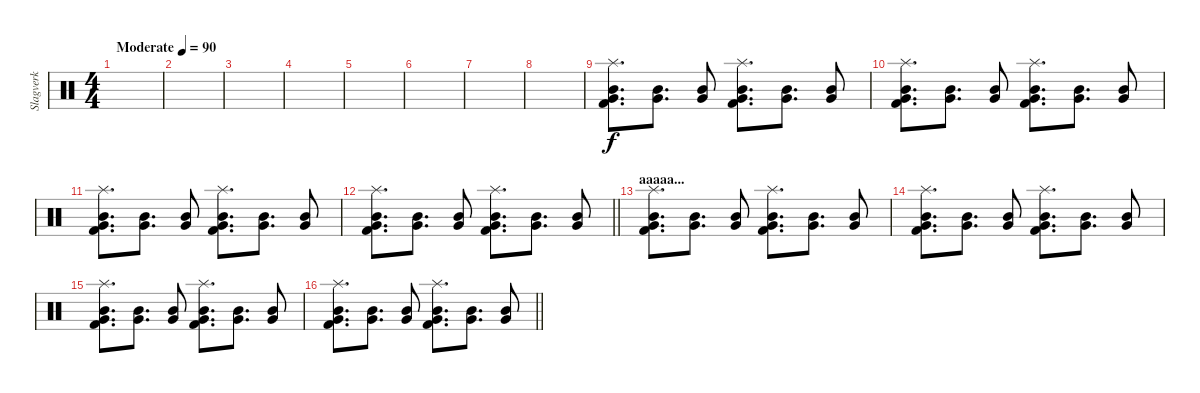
\track ("Slagverk" "Slagverk") {instrument percussion}
\staff {score}
\articulation defaults
\ts (4 4)
\tempo (90 "Moderate")
\clef neutral
\ks c
|
|
|
|
|
|
|
|
("Splash (hit)" "Very Low Tom (hit)" "Mid Tom (hit)" "Kick (hit) 2").8{d volume 6} ("Very Low Tom (hit)" "Mid Tom (hit)").8{d} ("Very Low Tom (hit)" "Mid Tom (hit)").8 ("Splash (hit)" "Very Low Tom (hit)" "Mid Tom (hit)" "Kick (hit) 2").8{d} ("Very Low Tom (hit)" "Mid Tom (hit)").8{d} ("Very Low Tom (hit)" "Mid Tom (hit)").8 |
("Splash (hit)" "Very Low Tom (hit)" "Mid Tom (hit)" "Kick (hit) 2").8{d} ("Very Low Tom (hit)" "Mid Tom (hit)").8{d} ("Very Low Tom (hit)" "Mid Tom (hit)").8 ("Splash (hit)" "Very Low Tom (hit)" "Mid Tom (hit)" "Kick (hit) 2").8{d} ("Very Low Tom (hit)" "Mid Tom (hit)").8{d} ("Very Low Tom (hit)" "Mid Tom (hit)").8 |
("Splash (hit)" "Very Low Tom (hit)" "Mid Tom (hit)" "Kick (hit) 2").8{d} ("Very Low Tom (hit)" "Mid Tom (hit)").8{d} ("Very Low Tom (hit)" "Mid Tom (hit)").8 ("Splash (hit)" "Very Low Tom (hit)" "Mid Tom (hit)" "Kick (hit) 2").8{d} ("Very Low Tom (hit)" "Mid Tom (hit)").8{d} ("Very Low Tom (hit)" "Mid Tom (hit)").8 |
\barLineRight lightlight
("Splash (hit)" "Very Low Tom (hit)" "Mid Tom (hit)" "Kick (hit) 2").8{d} ("Very Low Tom (hit)" "Mid Tom (hit)").8{d} ("Very Low Tom (hit)" "Mid Tom (hit)").8 ("Splash (hit)" "Very Low Tom (hit)" "Mid Tom (hit)" "Kick (hit) 2").8{d} ("Very Low Tom (hit)" "Mid Tom (hit)").8{d} ("Very Low Tom (hit)" "Mid Tom (hit)").8 |
\section ("" "aaaaa...")
("Splash (hit)" "Very Low Tom (hit)" "Mid Tom (hit)" "Kick (hit) 2").8{d volume 9} ("Very Low Tom (hit)" "Mid Tom (hit)").8{d} ("Very Low Tom (hit)" "Mid Tom (hit)").8 ("Splash (hit)" "Very Low Tom (hit)" "Mid Tom (hit)" "Kick (hit) 2").8{d} ("Very Low Tom (hit)" "Mid Tom (hit)").8{d} ("Very Low Tom (hit)" "Mid Tom (hit)").8 |
("Splash (hit)" "Very Low Tom (hit)" "Mid Tom (hit)" "Kick (hit) 2").8{d} ("Very Low Tom (hit)" "Mid Tom (hit)").8{d} ("Very Low Tom (hit)" "Mid Tom (hit)").8 ("Splash (hit)" "Very Low Tom (hit)" "Mid Tom (hit)" "Kick (hit) 2").8{d} ("Very Low Tom (hit)" "Mid Tom (hit)").8{d} ("Very Low Tom (hit)" "Mid Tom (hit)").8 |
("Splash (hit)" "Very Low Tom (hit)" "Mid Tom (hit)" "Kick (hit) 2").8{d volume 13} ("Very Low Tom (hit)" "Mid Tom (hit)").8{d} ("Very Low Tom (hit)" "Mid Tom (hit)").8 ("Splash (hit)" "Very Low Tom (hit)" "Mid Tom (hit)" "Kick (hit) 2").8{d} ("Very Low Tom (hit)" "Mid Tom (hit)").8{d} ("Very Low Tom (hit)" "Mid Tom (hit)").8 |
\barLineRight lightlight
("Splash (hit)" "Very Low Tom (hit)" "Mid Tom (hit)" "Kick (hit) 2").8{d} ("Very Low Tom (hit)" "Mid Tom (hit)").8{d} ("Very Low Tom (hit)" "Mid Tom (hit)").8 ("Splash (hit)" "Very Low Tom (hit)" "Mid Tom (hit)" "Kick (hit) 2").8{d} ("Very Low Tom (hit)" "Mid Tom (hit)").8{d} ("Very Low Tom (hit)" "Mid Tom (hit)").8
